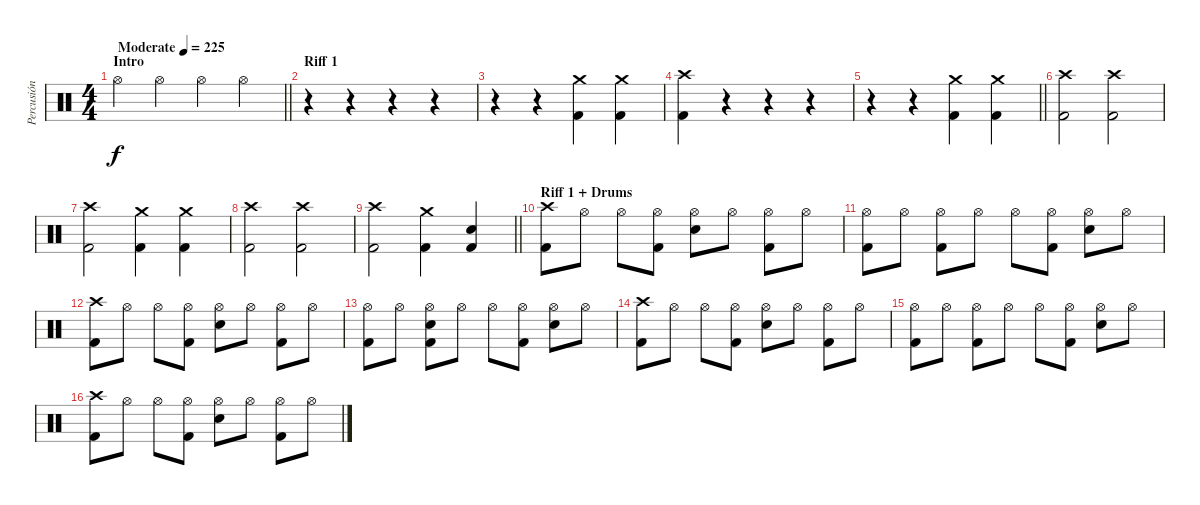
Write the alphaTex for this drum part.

\track ("Percusión" "Percusión") {instrument percussion}
\staff {score}
\articulation defaults
\ts (4 4)
\section ("" "Intro")
\tempo (225 "Moderate")
\clef neutral
\barLineRight lightlight
\ks c "Hi-Hat (open)".4{dy f} "Hi-Hat (open)".4 "Hi-Hat (open)".4 "Hi-Hat (open)".4
|
\section ("" "Riff 1")
r.4 r.4 r.4 r.4 |
r.4 r.4 ("Crash medium (hit)" "Kick (hit) 2").4 ("Crash medium (hit)" "Kick (hit) 2").4 |
("Crash high (hit)" "Kick (hit) 2").4 r.4 r.4 r.4 |
\barLineRight lightlight
r.4 r.4 ("Crash medium (hit)" "Kick (hit) 2").4 ("Crash medium (hit)" "Kick (hit) 2").4 |
\section ("" "")
("Crash high (hit)" "Kick (hit) 2").2 ("Crash high (hit)" "Kick (hit) 2").2 |
("Crash high (hit)" "Kick (hit) 2").2 ("Crash medium (hit)" "Kick (hit) 2").4 ("Crash medium (hit)" "Kick (hit) 2").4 |
("Crash high (hit)" "Kick (hit) 2").2 ("Crash high (hit)" "Kick (hit) 2").2 |
\barLineRight lightlight
("Crash high (hit)" "Kick (hit) 2").2 ("Crash medium (hit)" "Kick (hit) 2").4 ("Electric Snare (hit)" "Kick (hit) 2").4 |
\section ("" "Riff 1 + Drums")
("Crash high (hit)" "Kick (hit) 2").8 "Hi-Hat (open)".8 "Hi-Hat (open)".8 ("Hi-Hat (open)" "Kick (hit) 2").8 ("Hi-Hat (open)" "Electric Snare (hit)").8 "Hi-Hat (open)".8 ("Hi-Hat (open)" "Kick (hit) 2").8 "Hi-Hat (open)".8 |
("Hi-Hat (open)" "Kick (hit) 2").8 "Hi-Hat (open)".8 ("Hi-Hat (open)" "Kick (hit) 2").8 "Hi-Hat (open)".8 "Hi-Hat (open)".8 ("Hi-Hat (open)" "Kick (hit) 2").8 ("Hi-Hat (open)" "Electric Snare (hit)").8 "Hi-Hat (open)".8 |
("Crash high (hit)" "Kick (hit) 2").8 "Hi-Hat (open)".8 "Hi-Hat (open)".8 ("Hi-Hat (open)" "Kick (hit) 2").8 ("Hi-Hat (open)" "Electric Snare (hit)").8 "Hi-Hat (open)".8 ("Hi-Hat (open)" "Kick (hit) 2").8 "Hi-Hat (open)".8 |
("Hi-Hat (open)" "Kick (hit) 2").8 "Hi-Hat (open)".8 ("Hi-Hat (open)" "Electric Snare (hit)" "Kick (hit) 2").8 "Hi-Hat (open)".8 "Hi-Hat (open)".8 ("Hi-Hat (open)" "Kick (hit) 2").8 ("Hi-Hat (open)" "Electric Snare (hit)").8 "Hi-Hat (open)".8 |
("Crash high (hit)" "Kick (hit) 2").8 "Hi-Hat (open)".8 "Hi-Hat (open)".8 ("Hi-Hat (open)" "Kick (hit) 2").8 ("Hi-Hat (open)" "Electric Snare (hit)").8 "Hi-Hat (open)".8 ("Hi-Hat (open)" "Kick (hit) 2").8 "Hi-Hat (open)".8 |
("Hi-Hat (open)" "Kick (hit) 2").8 "Hi-Hat (open)".8 ("Hi-Hat (open)" "Kick (hit) 2").8 "Hi-Hat (open)".8 "Hi-Hat (open)".8 ("Hi-Hat (open)" "Kick (hit) 2").8 ("Hi-Hat (open)" "Electric Snare (hit)").8 "Hi-Hat (open)".8 |
("Crash high (hit)" "Kick (hit) 2").8 "Hi-Hat (open)".8 "Hi-Hat (open)".8 ("Hi-Hat (open)" "Kick (hit) 2").8 ("Hi-Hat (open)" "Electric Snare (hit)").8 "Hi-Hat (open)".8 ("Hi-Hat (open)" "Kick (hit) 2").8 "Hi-Hat (open)".8
